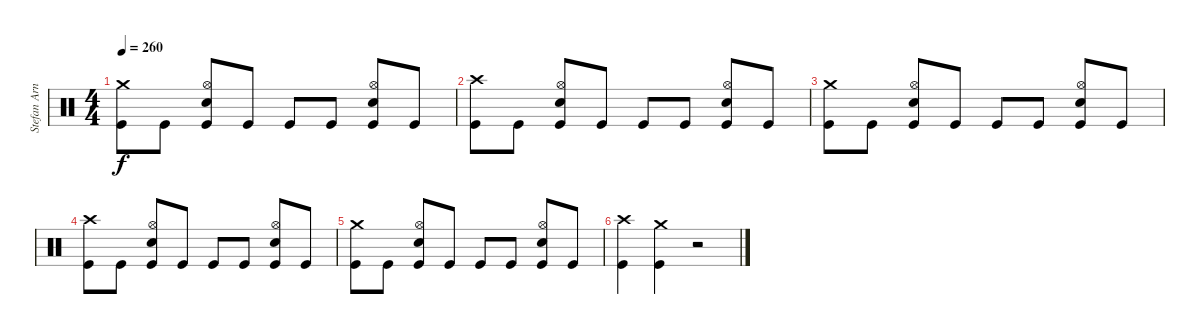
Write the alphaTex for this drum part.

\track ("Stefan Arnold" "Stefan Arn") {instrument percussion}
\staff {score}
\articulation defaults
\ts (4 4)
\tempo 260
\clef neutral
\ks c
("Crash medium (hit)" "Kick (hit)").8{dy f} "Kick (hit)".8 ("Hi-Hat (open)" "Electric Snare (hit)" "Kick (hit)").8 "Kick (hit)".8 "Kick (hit)".8 "Kick (hit)".8 ("Hi-Hat (open)" "Electric Snare (hit)" "Kick (hit)").8 "Kick (hit)".8 |
("Crash high (hit)" "Kick (hit)").8 "Kick (hit)".8 ("Hi-Hat (open)" "Electric Snare (hit)" "Kick (hit)").8 "Kick (hit)".8 "Kick (hit)".8 "Kick (hit)".8 ("Hi-Hat (open)" "Electric Snare (hit)" "Kick (hit)").8 "Kick (hit)".8 |
("Crash medium (hit)" "Kick (hit)").8 "Kick (hit)".8 ("Hi-Hat (open)" "Electric Snare (hit)" "Kick (hit)").8 "Kick (hit)".8 "Kick (hit)".8 "Kick (hit)".8 ("Hi-Hat (open)" "Electric Snare (hit)" "Kick (hit)").8 "Kick (hit)".8 |
("Crash high (hit)" "Kick (hit)").8 "Kick (hit)".8 ("Hi-Hat (open)" "Electric Snare (hit)" "Kick (hit)").8 "Kick (hit)".8 "Kick (hit)".8 "Kick (hit)".8 ("Hi-Hat (open)" "Electric Snare (hit)" "Kick (hit)").8 "Kick (hit)".8 |
("Crash medium (hit)" "Kick (hit)").8 "Kick (hit)".8 ("Hi-Hat (open)" "Electric Snare (hit)" "Kick (hit)").8 "Kick (hit)".8 "Kick (hit)".8 "Kick (hit)".8 ("Hi-Hat (open)" "Electric Snare (hit)" "Kick (hit)").8 "Kick (hit)".8 |
("Kick (hit)" "Crash high (hit)").4 ("Kick (hit)" "Crash medium (hit)").4 r.2
